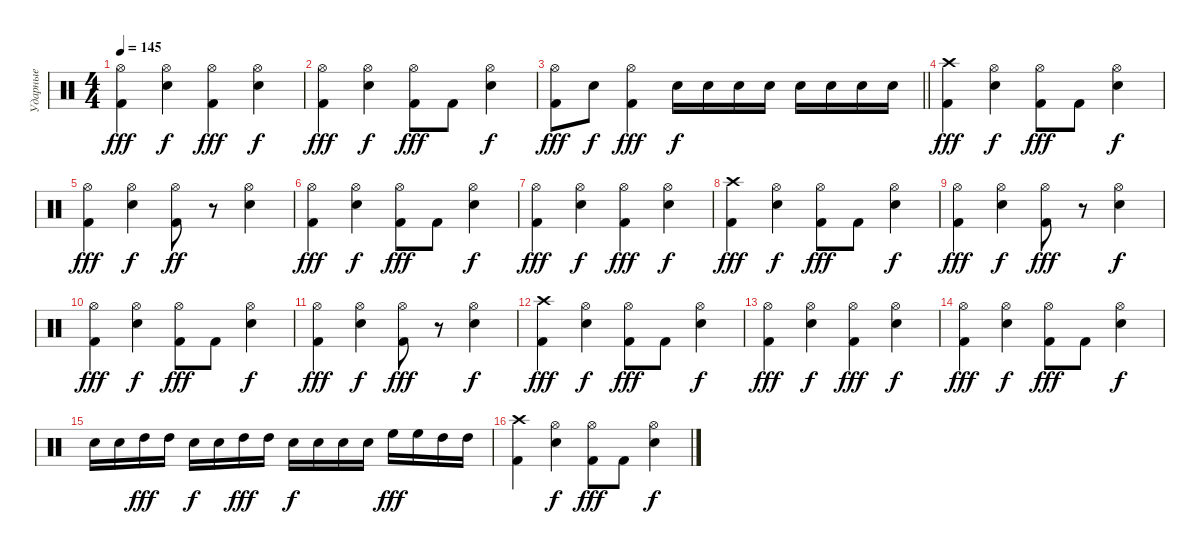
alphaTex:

\track ("Ударные" "Ударные") {instrument percussion}
\staff {score}
\articulation defaults
\ts (4 4)
\tempo 145
\clef neutral
\ks c
("Kick (hit) 2" "Hi-Hat (open)").4{dy fff} ("Snare (hit) 2" "Hi-Hat (open)").4{dy f} ("Kick (hit) 2" "Hi-Hat (open)").4{dy fff} ("Snare (hit) 2" "Hi-Hat (open)").4{dy f} |
("Kick (hit) 2" "Hi-Hat (open)").4{dy fff} ("Snare (hit) 2" "Hi-Hat (open)").4{dy f} ("Kick (hit) 2" "Hi-Hat (open)").8{dy fff} "Kick (hit) 2".8 ("Snare (hit) 2" "Hi-Hat (open)").4{dy f} |
\barLineRight lightlight
("Kick (hit) 2" "Hi-Hat (open)").8{dy fff} "Snare (hit) 2".8{dy f} ("Kick (hit) 2" "Hi-Hat (open)").4{dy fff} "Snare (hit) 2".16{dy f} "Snare (hit) 2".16 "Snare (hit) 2".16 "Snare (hit) 2".16 "Snare (hit) 2".16 "Snare (hit) 2".16 "Snare (hit) 2".16 "Snare (hit) 2".16 |
("Kick (hit) 2" "Crash high (hit)").4{dy fff} ("Snare (hit) 2" "Hi-Hat (open)").4{dy f} ("Kick (hit) 2" "Hi-Hat (open)").8{dy fff} "Kick (hit) 2".8 ("Snare (hit) 2" "Hi-Hat (open)").4{dy f} |
("Kick (hit) 2" "Hi-Hat (open)").4{dy fff} ("Snare (hit) 2" "Hi-Hat (open)").4{dy f} ("Kick (hit) 2" "Hi-Hat (open)").8{dy ff} r.8 ("Snare (hit) 2" "Hi-Hat (open)").4 |
("Kick (hit) 2" "Hi-Hat (open)").4{dy fff} ("Snare (hit) 2" "Hi-Hat (open)").4{dy f} ("Kick (hit) 2" "Hi-Hat (open)").8{dy fff} "Kick (hit) 2".8 ("Snare (hit) 2" "Hi-Hat (open)").4{dy f} |
("Kick (hit) 2" "Hi-Hat (open)").4{dy fff} ("Snare (hit) 2" "Hi-Hat (open)").4{dy f} ("Kick (hit) 2" "Hi-Hat (open)").4{dy fff} ("Snare (hit) 2" "Hi-Hat (open)").4{dy f} |
("Kick (hit) 2" "Crash high (hit)").4{dy fff} ("Snare (hit) 2" "Hi-Hat (open)").4{dy f} ("Kick (hit) 2" "Hi-Hat (open)").8{dy fff} "Kick (hit) 2".8 ("Snare (hit) 2" "Hi-Hat (open)").4{dy f} |
("Kick (hit) 2" "Hi-Hat (open)").4{dy fff} ("Snare (hit) 2" "Hi-Hat (open)").4{dy f} ("Kick (hit) 2" "Hi-Hat (open)").8{dy fff} r.8 ("Snare (hit) 2" "Hi-Hat (open)").4{dy f} |
("Kick (hit) 2" "Hi-Hat (open)").4{dy fff} ("Snare (hit) 2" "Hi-Hat (open)").4{dy f} ("Kick (hit) 2" "Hi-Hat (open)").8{dy fff} "Kick (hit) 2".8 ("Snare (hit) 2" "Hi-Hat (open)").4{dy f} |
("Kick (hit) 2" "Hi-Hat (open)").4{dy fff} ("Snare (hit) 2" "Hi-Hat (open)").4{dy f} ("Kick (hit) 2" "Hi-Hat (open)").8{dy fff} r.8 ("Snare (hit) 2" "Hi-Hat (open)").4{dy f} |
("Kick (hit) 2" "Crash high (hit)").4{dy fff} ("Snare (hit) 2" "Hi-Hat (open)").4{dy f} ("Kick (hit) 2" "Hi-Hat (open)").8{dy fff} "Kick (hit) 2".8 ("Snare (hit) 2" "Hi-Hat (open)").4{dy f} |
("Kick (hit) 2" "Hi-Hat (open)").4{dy fff} ("Snare (hit) 2" "Hi-Hat (open)").4{dy f} ("Kick (hit) 2" "Hi-Hat (open)").4{dy fff} ("Snare (hit) 2" "Hi-Hat (open)").4{dy f} |
("Kick (hit) 2" "Hi-Hat (open)").4{dy fff} ("Snare (hit) 2" "Hi-Hat (open)").4{dy f} ("Kick (hit) 2" "Hi-Hat (open)").8{dy fff} "Kick (hit) 2".8 ("Snare (hit) 2" "Hi-Hat (open)").4{dy f} |
"Snare (hit) 2".16 "Snare (hit) 2".16 "High Tom (hit)".16{dy fff} "High Tom (hit)".16 "Snare (hit) 2".16{dy f} "Snare (hit) 2".16 "High Tom (hit)".16{dy fff} "High Tom (hit)".16 "Snare (hit) 2".16{dy f} "Snare (hit) 2".16 "Snare (hit) 2".16 "Snare (hit) 2".16 "High Floor Tom (hit)".16{dy fff} "High Floor Tom (hit)".16 "High Tom (hit)".16 "High Tom (hit)".16 |
("Kick (hit) 2" "Crash high (hit)").4 ("Snare (hit) 2" "Hi-Hat (open)").4{dy f} ("Kick (hit) 2" "Hi-Hat (open)").8{dy fff} "Kick (hit) 2".8 ("Snare (hit) 2" "Hi-Hat (open)").4{dy f}
